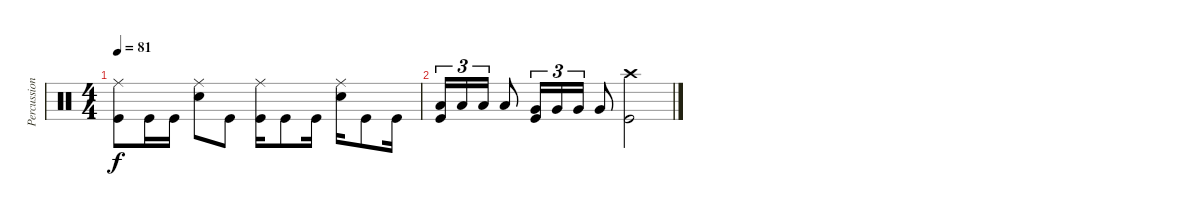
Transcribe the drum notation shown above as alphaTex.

\track ("Percussion" "Percussion") {instrument percussion}
\staff {score}
\articulation defaults
\ts (4 4)
\tempo 81
\clef neutral
\ks c
("Ride (middle)" "Kick (hit)").8{dy f} "Kick (hit)".16 "Kick (hit)".16 ("Ride (middle)" "Electric Snare (hit)").8 "Kick (hit)".8 ("Ride (middle)" "Kick (hit)").16 "Kick (hit)".8 "Kick (hit)".16 ("Ride (middle)" "Electric Snare (hit)").16 "Kick (hit)".8 "Kick (hit)".16 |
("Low Tom (hit)" "Kick (hit)").16{tu (3 2)} "Low Tom (hit)".16{tu (3 2)} "Low Tom (hit)".16{tu (3 2)} "Low Tom (hit)".8 ("Very Low Tom (hit)" "Kick (hit)").16{tu (3 2)} "Very Low Tom (hit)".16{tu (3 2)} "Very Low Tom (hit)".16{tu (3 2)} "Very Low Tom (hit)".8 ("Crash high (hit)" "Kick (hit)").2
